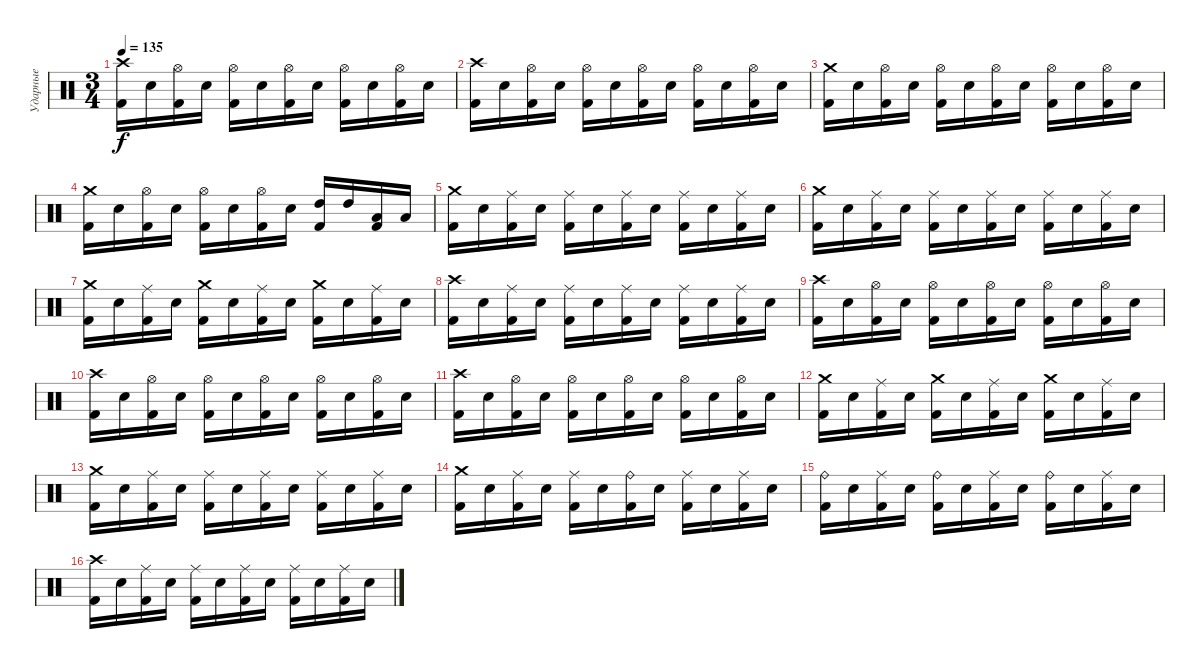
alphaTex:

\track ("Ударные" "Ударные") {instrument percussion}
\staff {score}
\articulation defaults
\ts (3 4)
\tempo 135
\clef neutral
\ks c
("Crash high (hit)" "Kick (hit) 2").16{dy f} "Electric Snare (hit)".16 ("Hi-Hat (open)" "Kick (hit) 2").16 "Electric Snare (hit)".16 ("Hi-Hat (open)" "Kick (hit) 2").16 "Electric Snare (hit)".16 ("Hi-Hat (open)" "Kick (hit) 2").16 "Electric Snare (hit)".16 ("Hi-Hat (open)" "Kick (hit) 2").16 "Electric Snare (hit)".16 ("Hi-Hat (open)" "Kick (hit) 2").16 "Electric Snare (hit)".16 |
("Crash high (hit)" "Kick (hit) 2").16 "Electric Snare (hit)".16 ("Hi-Hat (open)" "Kick (hit) 2").16 "Electric Snare (hit)".16 ("Hi-Hat (open)" "Kick (hit) 2").16 "Electric Snare (hit)".16 ("Hi-Hat (open)" "Kick (hit) 2").16 "Electric Snare (hit)".16 ("Hi-Hat (open)" "Kick (hit) 2").16 "Electric Snare (hit)".16 ("Hi-Hat (open)" "Kick (hit) 2").16 "Electric Snare (hit)".16 |
("Crash medium (hit)" "Kick (hit) 2").16 "Electric Snare (hit)".16 ("Hi-Hat (open)" "Kick (hit) 2").16 "Electric Snare (hit)".16 ("Hi-Hat (open)" "Kick (hit) 2").16 "Electric Snare (hit)".16 ("Hi-Hat (open)" "Kick (hit) 2").16 "Electric Snare (hit)".16 ("Hi-Hat (open)" "Kick (hit) 2").16 "Electric Snare (hit)".16 ("Hi-Hat (open)" "Kick (hit) 2").16 "Electric Snare (hit)".16 |
("Crash medium (hit)" "Kick (hit) 2").16 "Electric Snare (hit)".16 ("Hi-Hat (open)" "Kick (hit) 2").16 "Electric Snare (hit)".16 ("Hi-Hat (open)" "Kick (hit) 2").16 "Electric Snare (hit)".16 ("Hi-Hat (open)" "Kick (hit) 2").16 "Electric Snare (hit)".16 ("High Tom (hit)" "Kick (hit) 2").16 "High Tom (hit)".16 ("Low Tom (hit)" "Kick (hit) 2").16 "Low Tom (hit)".16 |
("Crash medium (hit)" "Kick (hit) 2").16 "Electric Snare (hit)".16 ("Ride (middle)" "Kick (hit) 2").16 "Electric Snare (hit)".16 ("Ride (middle)" "Kick (hit) 2").16 "Electric Snare (hit)".16 ("Ride (middle)" "Kick (hit) 2").16 "Electric Snare (hit)".16 ("Ride (middle)" "Kick (hit) 2").16 "Electric Snare (hit)".16 ("Ride (middle)" "Kick (hit) 2").16 "Electric Snare (hit)".16 |
("Crash medium (hit)" "Kick (hit) 2").16 "Electric Snare (hit)".16 ("Ride (middle)" "Kick (hit) 2").16 "Electric Snare (hit)".16 ("Ride (middle)" "Kick (hit) 2").16 "Electric Snare (hit)".16 ("Ride (middle)" "Kick (hit) 2").16 "Electric Snare (hit)".16 ("Ride (middle)" "Kick (hit) 2").16 "Electric Snare (hit)".16 ("Ride (middle)" "Kick (hit) 2").16 "Electric Snare (hit)".16 |
("Crash medium (hit)" "Kick (hit) 2").16 "Electric Snare (hit)".16 ("Ride (middle)" "Kick (hit) 2").16 "Electric Snare (hit)".16 ("Crash medium (hit)" "Kick (hit) 2").16 "Electric Snare (hit)".16 ("Ride (middle)" "Kick (hit) 2").16 "Electric Snare (hit)".16 ("Crash medium (hit)" "Kick (hit) 2").16 "Electric Snare (hit)".16 ("Ride (middle)" "Kick (hit) 2").16 "Electric Snare (hit)".16 |
("Crash high (hit)" "Kick (hit) 2").16 "Electric Snare (hit)".16 ("Ride (middle)" "Kick (hit) 2").16 "Electric Snare (hit)".16 ("Ride (middle)" "Kick (hit) 2").16 "Electric Snare (hit)".16 ("Ride (middle)" "Kick (hit) 2").16 "Electric Snare (hit)".16 ("Ride (middle)" "Kick (hit) 2").16 "Electric Snare (hit)".16 ("Ride (middle)" "Kick (hit) 2").16 "Electric Snare (hit)".16 |
("Crash high (hit)" "Kick (hit) 2").16 "Electric Snare (hit)".16 ("Hi-Hat (open)" "Kick (hit) 2").16 "Electric Snare (hit)".16 ("Hi-Hat (open)" "Kick (hit) 2").16 "Electric Snare (hit)".16 ("Hi-Hat (open)" "Kick (hit) 2").16 "Electric Snare (hit)".16 ("Hi-Hat (open)" "Kick (hit) 2").16 "Electric Snare (hit)".16 ("Hi-Hat (open)" "Kick (hit) 2").16 "Electric Snare (hit)".16 |
("Crash high (hit)" "Kick (hit) 2").16 "Electric Snare (hit)".16 ("Hi-Hat (open)" "Kick (hit) 2").16 "Electric Snare (hit)".16 ("Hi-Hat (open)" "Kick (hit) 2").16 "Electric Snare (hit)".16 ("Hi-Hat (open)" "Kick (hit) 2").16 "Electric Snare (hit)".16 ("Hi-Hat (open)" "Kick (hit) 2").16 "Electric Snare (hit)".16 ("Hi-Hat (open)" "Kick (hit) 2").16 "Electric Snare (hit)".16 |
("Crash high (hit)" "Kick (hit) 2").16 "Electric Snare (hit)".16 ("Hi-Hat (open)" "Kick (hit) 2").16 "Electric Snare (hit)".16 ("Hi-Hat (open)" "Kick (hit) 2").16 "Electric Snare (hit)".16 ("Hi-Hat (open)" "Kick (hit) 2").16 "Electric Snare (hit)".16 ("Hi-Hat (open)" "Kick (hit) 2").16 "Electric Snare (hit)".16 ("Hi-Hat (open)" "Kick (hit) 2").16 "Electric Snare (hit)".16 |
("Crash medium (hit)" "Kick (hit) 2").16 "Electric Snare (hit)".16 ("Ride (middle)" "Kick (hit) 2").16 "Electric Snare (hit)".16 ("Crash medium (hit)" "Kick (hit) 2").16 "Electric Snare (hit)".16 ("Ride (middle)" "Kick (hit) 2").16 "Electric Snare (hit)".16 ("Crash medium (hit)" "Kick (hit) 2").16 "Electric Snare (hit)".16 ("Ride (middle)" "Kick (hit) 2").16 "Electric Snare (hit)".16 |
("Crash medium (hit)" "Kick (hit) 2").16 "Electric Snare (hit)".16 ("Ride (middle)" "Kick (hit) 2").16 "Electric Snare (hit)".16 ("Ride (middle)" "Kick (hit) 2").16 "Electric Snare (hit)".16 ("Ride (middle)" "Kick (hit) 2").16 "Electric Snare (hit)".16 ("Ride (middle)" "Kick (hit) 2").16 "Electric Snare (hit)".16 ("Ride (middle)" "Kick (hit) 2").16 "Electric Snare (hit)".16 |
("Crash medium (hit)" "Kick (hit) 2").16 "Electric Snare (hit)".16 ("Ride (middle)" "Kick (hit) 2").16 "Electric Snare (hit)".16 ("Ride (middle)" "Kick (hit) 2").16 "Electric Snare (hit)".16 ("Ride (bell)" "Kick (hit) 2").16 "Electric Snare (hit)".16 ("Ride (middle)" "Kick (hit) 2").16 "Electric Snare (hit)".16 ("Ride (middle)" "Kick (hit) 2").16 "Electric Snare (hit)".16 |
("Ride (bell)" "Kick (hit) 2").16 "Electric Snare (hit)".16 ("Ride (middle)" "Kick (hit) 2").16 "Electric Snare (hit)".16 ("Ride (bell)" "Kick (hit) 2").16 "Electric Snare (hit)".16 ("Ride (middle)" "Kick (hit) 2").16 "Electric Snare (hit)".16 ("Ride (bell)" "Kick (hit) 2").16 "Electric Snare (hit)".16 ("Ride (middle)" "Kick (hit) 2").16 "Electric Snare (hit)".16 |
("Crash high (hit)" "Kick (hit) 2").16 "Electric Snare (hit)".16 ("Ride (middle)" "Kick (hit) 2").16 "Electric Snare (hit)".16 ("Ride (middle)" "Kick (hit) 2").16 "Electric Snare (hit)".16 ("Ride (middle)" "Kick (hit) 2").16 "Electric Snare (hit)".16 ("Ride (middle)" "Kick (hit) 2").16 "Electric Snare (hit)".16 ("Ride (middle)" "Kick (hit) 2").16 "Electric Snare (hit)".16
